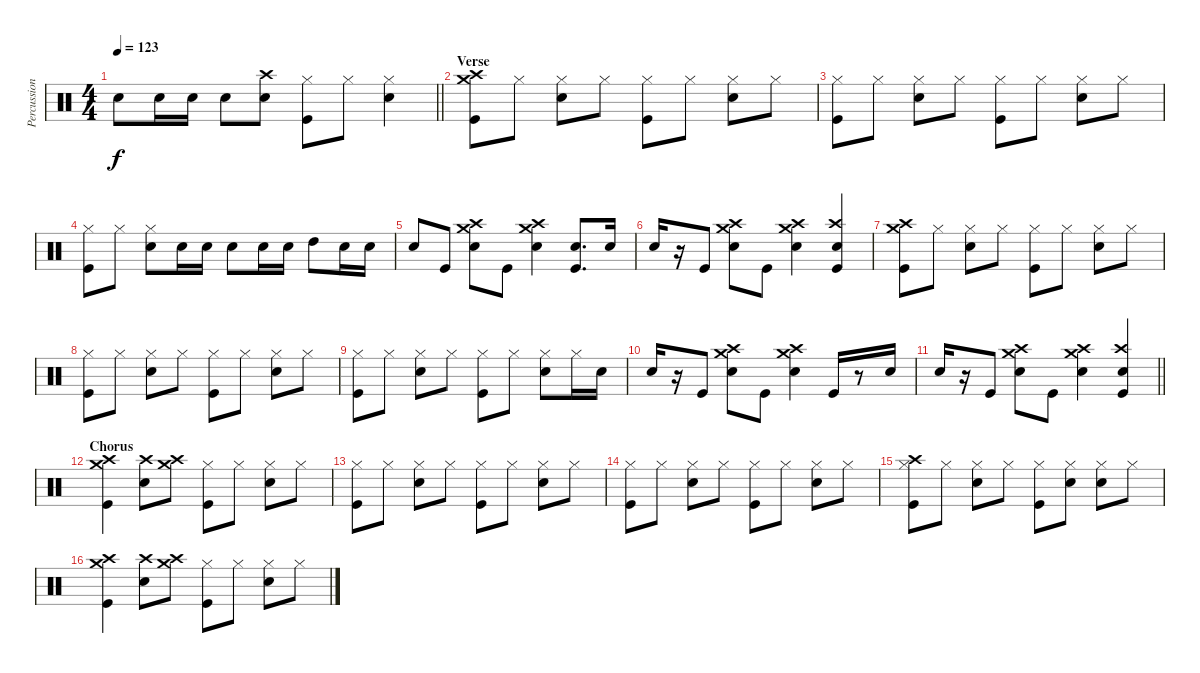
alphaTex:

\track ("Percussion" "Percussion") {instrument percussion}
\staff {score}
\articulation defaults
\ts (4 4)
\tempo 123
\clef neutral
\barLineRight lightlight
\ks c "Snare (hit) 2".8{dy f} "Snare (hit) 2".16 "Snare (hit) 2".16 "Snare (hit) 2".8
("Snare (hit) 2" "Crash high (hit)").8 ("Hi-Hat (closed)" "Kick (hit)").8 "Hi-Hat (closed)".8 ("Hi-Hat (closed)" "Snare (hit) 2").4 |
\section ("" "Verse")
("Crash high (hit)" "Kick (hit)" "Crash medium (hit)").8 "Hi-Hat (closed)".8 ("Hi-Hat (closed)" "Snare (hit) 2").8 "Hi-Hat (closed)".8 ("Hi-Hat (closed)" "Kick (hit)").8 "Hi-Hat (closed)".8 ("Hi-Hat (closed)" "Snare (hit) 2").8 "Hi-Hat (closed)".8 |
("Hi-Hat (closed)" "Kick (hit)").8 "Hi-Hat (closed)".8 ("Hi-Hat (closed)" "Snare (hit) 2").8 "Hi-Hat (closed)".8 ("Hi-Hat (closed)" "Kick (hit)").8 "Hi-Hat (closed)".8 ("Hi-Hat (closed)" "Snare (hit) 2").8 "Hi-Hat (closed)".8 |
("Hi-Hat (closed)" "Kick (hit)").8 "Hi-Hat (closed)".8 ("Hi-Hat (closed)" "Snare (hit) 2").8 "Snare (hit) 2".16 "Snare (hit) 2".16 "Snare (hit) 2".8 "Snare (hit) 2".16 "Snare (hit) 2".16 "High Tom (hit)".8 "Snare (hit) 2".16 "Snare (hit) 2".16 |
"Snare (hit) 2".8 "Kick (hit)".8 ("Snare (hit) 2" "Crash medium (hit)" "Crash high (hit)").8 "Kick (hit)".8 ("Snare (hit) 2" "Crash medium (hit)" "Crash high (hit)").4 ("Kick (hit)" "Snare (hit) 2").8{d} "Snare (hit) 2".16 |
"Snare (hit) 2".16 r.16 "Kick (hit)".8 ("Snare (hit) 2" "Crash medium (hit)" "Crash high (hit)").8 "Kick (hit)".8 ("Snare (hit) 2" "Crash medium (hit)" "Crash high (hit)").4 ("Kick (hit)" "Snare (hit) 2" "Crash high (hit)").4 |
("Crash high (hit)" "Kick (hit)" "Crash medium (hit)").8 "Hi-Hat (closed)".8 ("Hi-Hat (closed)" "Snare (hit) 2").8 "Hi-Hat (closed)".8 ("Hi-Hat (closed)" "Kick (hit)").8 "Hi-Hat (closed)".8 ("Hi-Hat (closed)" "Snare (hit) 2").8 "Hi-Hat (closed)".8 |
("Hi-Hat (closed)" "Kick (hit)").8 "Hi-Hat (closed)".8 ("Hi-Hat (closed)" "Snare (hit) 2").8 "Hi-Hat (closed)".8 ("Hi-Hat (closed)" "Kick (hit)").8 "Hi-Hat (closed)".8 ("Hi-Hat (closed)" "Snare (hit) 2").8 "Hi-Hat (closed)".8 |
("Hi-Hat (closed)" "Kick (hit)").8 "Hi-Hat (closed)".8 ("Hi-Hat (closed)" "Snare (hit) 2").8 "Hi-Hat (closed)".8 ("Hi-Hat (closed)" "Kick (hit)").8 "Hi-Hat (closed)".8 ("Hi-Hat (closed)" "Snare (hit) 2").8 "Hi-Hat (closed)".16 "Snare (hit) 2".16 |
"Snare (hit) 2".16 r.16 "Kick (hit)".8 ("Snare (hit) 2" "Crash medium (hit)" "Crash high (hit)").8 "Kick (hit)".8 ("Snare (hit) 2" "Crash medium (hit)" "Crash high (hit)").4 "Kick (hit)".16 r.8 "Snare (hit) 2".16 |
\barLineRight lightlight "Snare (hit) 2".16
r.16 "Kick (hit)".8 ("Snare (hit) 2" "Crash medium (hit)" "Crash high (hit)").8 "Kick (hit)".8 ("Snare (hit) 2" "Crash medium (hit)" "Crash high (hit)").4 ("Kick (hit)" "Snare (hit) 2" "Crash high (hit)").4 |
\section ("" "Chorus")
("Crash high (hit)" "Crash medium (hit)" "Kick (hit)").4 ("Crash high (hit)" "Snare (hit) 2").8 ("Crash high (hit)" "Crash medium (hit)").8 ("Hi-Hat (closed)" "Kick (hit)").8 "Hi-Hat (closed)".8 ("Hi-Hat (closed)" "Snare (hit) 2").8 "Hi-Hat (closed)".8 |
("Hi-Hat (closed)" "Kick (hit)").8 "Hi-Hat (closed)".8 ("Hi-Hat (closed)" "Snare (hit) 2").8 "Hi-Hat (closed)".8 ("Hi-Hat (closed)" "Kick (hit)").8 "Hi-Hat (closed)".8 ("Hi-Hat (closed)" "Snare (hit) 2").8 "Hi-Hat (closed)".8 |
("Hi-Hat (closed)" "Kick (hit)").8 "Hi-Hat (closed)".8 ("Hi-Hat (closed)" "Snare (hit) 2").8 "Hi-Hat (closed)".8 ("Hi-Hat (closed)" "Kick (hit)").8 "Hi-Hat (closed)".8 ("Hi-Hat (closed)" "Snare (hit) 2").8 "Hi-Hat (closed)".8 |
("Hi-Hat (closed)" "Kick (hit)" "Crash high (hit)").8 "Hi-Hat (closed)".8 ("Hi-Hat (closed)" "Snare (hit) 2").8 "Hi-Hat (closed)".8 ("Kick (hit)" "Hi-Hat (closed)").8 ("Snare (hit) 2" "Hi-Hat (closed)").8 ("Snare (hit) 2" "Hi-Hat (closed)").8 "Hi-Hat (closed)".8 |
("Crash high (hit)" "Crash medium (hit)" "Kick (hit)").4 ("Crash high (hit)" "Snare (hit) 2").8 ("Crash high (hit)" "Crash medium (hit)").8 ("Hi-Hat (closed)" "Kick (hit)").8 "Hi-Hat (closed)".8 ("Hi-Hat (closed)" "Snare (hit) 2").8 "Hi-Hat (closed)".8
